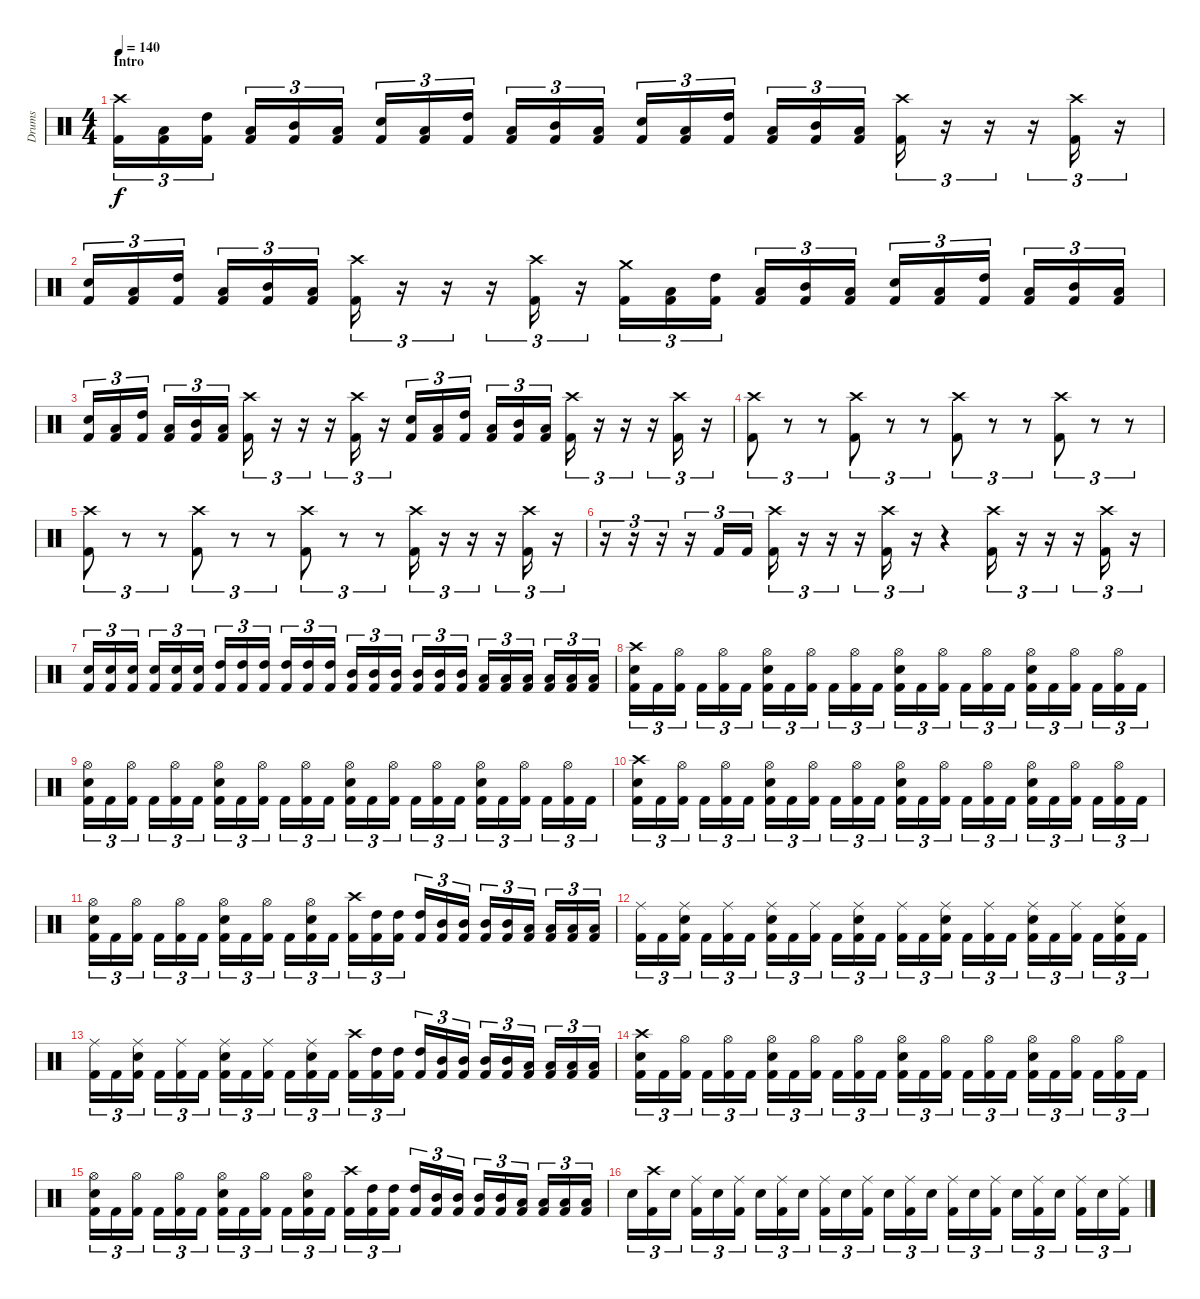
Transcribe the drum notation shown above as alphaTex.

\track ("Drums" "Drums") {instrument percussion}
\staff {score}
\articulation defaults
\ts (4 4)
\section ("" "Intro")
\tempo 140
\clef neutral
\ks c
("Kick (hit) 2" "Crash high (hit)").16{tu (3 2) dy f} ("Kick (hit) 2" "Low Tom (hit)").16{tu (3 2)} ("Kick (hit) 2" "High Tom (hit)").16{tu (3 2)} ("Kick (hit) 2" "Low Tom (hit)").16{tu (3 2)} ("Kick (hit) 2" "Mid Tom (hit)").16{tu (3 2)} ("Kick (hit) 2" "Low Tom (hit)").16{tu (3 2)} ("Kick (hit) 2" "Snare (hit) 2").16{tu (3 2)} ("Kick (hit) 2" "Low Tom (hit)").16{tu (3 2)} ("Kick (hit) 2" "High Tom (hit)").16{tu (3 2)} ("Kick (hit) 2" "Low Tom (hit)").16{tu (3 2)} ("Kick (hit) 2" "Mid Tom (hit)").16{tu (3 2)} ("Kick (hit) 2" "Low Tom (hit)").16{tu (3 2)} ("Kick (hit) 2" "Snare (hit) 2").16{tu (3 2)} ("Kick (hit) 2" "Low Tom (hit)").16{tu (3 2)} ("Kick (hit) 2" "High Tom (hit)").16{tu (3 2)} ("Kick (hit) 2" "Low Tom (hit)").16{tu (3 2)} ("Kick (hit) 2" "Mid Tom (hit)").16{tu (3 2)} ("Kick (hit) 2" "Low Tom (hit)").16{tu (3 2)} ("Kick (hit) 2" "Crash high (hit)").16{tu (3 2)} r.16{tu (3 2)} r.16{tu (3 2)} r.16{tu (3 2)} ("Kick (hit) 2" "Crash high (hit)").16{tu (3 2)} r.16{tu (3 2)} |
("Kick (hit) 2" "Snare (hit) 2").16{tu (3 2)} ("Kick (hit) 2" "Low Tom (hit)").16{tu (3 2)} ("Kick (hit) 2" "High Tom (hit)").16{tu (3 2)} ("Kick (hit) 2" "Low Tom (hit)").16{tu (3 2)} ("Kick (hit) 2" "Mid Tom (hit)").16{tu (3 2)} ("Kick (hit) 2" "Low Tom (hit)").16{tu (3 2)} ("Kick (hit) 2" "Crash high (hit)").16{tu (3 2)} r.16{tu (3 2)} r.16{tu (3 2)} r.16{tu (3 2)} ("Kick (hit) 2" "Crash high (hit)").16{tu (3 2)} r.16{tu (3 2)} ("Kick (hit) 2" "Crash medium (hit)").16{tu (3 2)} ("Kick (hit) 2" "Low Tom (hit)").16{tu (3 2)} ("Kick (hit) 2" "High Tom (hit)").16{tu (3 2)} ("Kick (hit) 2" "Low Tom (hit)").16{tu (3 2)} ("Kick (hit) 2" "Mid Tom (hit)").16{tu (3 2)} ("Kick (hit) 2" "Low Tom (hit)").16{tu (3 2)} ("Kick (hit) 2" "Snare (hit) 2").16{tu (3 2)} ("Kick (hit) 2" "Low Tom (hit)").16{tu (3 2)} ("Kick (hit) 2" "High Tom (hit)").16{tu (3 2)} ("Kick (hit) 2" "Low Tom (hit)").16{tu (3 2)} ("Kick (hit) 2" "Mid Tom (hit)").16{tu (3 2)} ("Kick (hit) 2" "Low Tom (hit)").16{tu (3 2)} |
("Kick (hit) 2" "Snare (hit) 2").16{tu (3 2)} ("Kick (hit) 2" "Low Tom (hit)").16{tu (3 2)} ("Kick (hit) 2" "High Tom (hit)").16{tu (3 2)} ("Kick (hit) 2" "Low Tom (hit)").16{tu (3 2)} ("Kick (hit) 2" "Mid Tom (hit)").16{tu (3 2)} ("Kick (hit) 2" "Low Tom (hit)").16{tu (3 2)} ("Kick (hit) 2" "Crash high (hit)").16{tu (3 2)} r.16{tu (3 2)} r.16{tu (3 2)} r.16{tu (3 2)} ("Kick (hit) 2" "Crash high (hit)").16{tu (3 2)} r.16{tu (3 2)} ("Kick (hit) 2" "Snare (hit) 2").16{tu (3 2)} ("Kick (hit) 2" "Low Tom (hit)").16{tu (3 2)} ("Kick (hit) 2" "High Tom (hit)").16{tu (3 2)} ("Kick (hit) 2" "Low Tom (hit)").16{tu (3 2)} ("Kick (hit) 2" "Mid Tom (hit)").16{tu (3 2)} ("Kick (hit) 2" "Low Tom (hit)").16{tu (3 2)} ("Kick (hit) 2" "Crash high (hit)").16{tu (3 2)} r.16{tu (3 2)} r.16{tu (3 2)} r.16{tu (3 2)} ("Kick (hit) 2" "Crash high (hit)").16{tu (3 2)} r.16{tu (3 2)} |
("Kick (hit) 2" "Crash high (hit)").8{tu (3 2)} r.8{tu (3 2)} r.8{tu (3 2)} ("Kick (hit) 2" "Crash high (hit)").8{tu (3 2)} r.8{tu (3 2)} r.8{tu (3 2)} ("Kick (hit) 2" "Crash high (hit)").8{tu (3 2)} r.8{tu (3 2)} r.8{tu (3 2)} ("Kick (hit) 2" "Crash high (hit)").8{tu (3 2)} r.8{tu (3 2)} r.8{tu (3 2)} |
("Kick (hit) 2" "Crash high (hit)").8{tu (3 2)} r.8{tu (3 2)} r.8{tu (3 2)} ("Kick (hit) 2" "Crash high (hit)").8{tu (3 2)} r.8{tu (3 2)} r.8{tu (3 2)} ("Kick (hit) 2" "Crash high (hit)").8{tu (3 2)} r.8{tu (3 2)} r.8{tu (3 2)} ("Kick (hit) 2" "Crash high (hit)").16{tu (3 2)} r.16{tu (3 2)} r.16{tu (3 2)} r.16{tu (3 2)} ("Kick (hit) 2" "Crash high (hit)").16{tu (3 2)} r.16{tu (3 2)} |
r.16{tu (3 2)} r.16{tu (3 2)} r.16{tu (3 2)} r.16{tu (3 2)} "Kick (hit) 2".16{tu (3 2)} "Kick (hit) 2".16{tu (3 2)} ("Kick (hit) 2" "Crash high (hit)").16{tu (3 2)} r.16{tu (3 2)} r.16{tu (3 2)} r.16{tu (3 2)} ("Kick (hit) 2" "Crash high (hit)").16{tu (3 2)} r.16{tu (3 2)} r.4 ("Kick (hit) 2" "Crash high (hit)").16{tu (3 2)} r.16{tu (3 2)} r.16{tu (3 2)} r.16{tu (3 2)} ("Kick (hit) 2" "Crash high (hit)").16{tu (3 2)} r.16{tu (3 2)} |
("Kick (hit) 2" "Snare (hit) 2").16{tu (3 2)} ("Kick (hit) 2" "Snare (hit) 2").16{tu (3 2)} ("Kick (hit) 2" "Snare (hit) 2").16{tu (3 2)} ("Kick (hit) 2" "Snare (hit) 2").16{tu (3 2)} ("Kick (hit) 2" "Snare (hit) 2").16{tu (3 2)} ("Kick (hit) 2" "Snare (hit) 2").16{tu (3 2)} ("Kick (hit) 2" "High Tom (hit)").16{tu (3 2)} ("Kick (hit) 2" "High Tom (hit)").16{tu (3 2)} ("Kick (hit) 2" "High Tom (hit)").16{tu (3 2)} ("Kick (hit) 2" "High Tom (hit)").16{tu (3 2)} ("Kick (hit) 2" "High Tom (hit)").16{tu (3 2)} ("Kick (hit) 2" "High Tom (hit)").16{tu (3 2)} ("Kick (hit) 2" "Mid Tom (hit)").16{tu (3 2)} ("Kick (hit) 2" "Mid Tom (hit)").16{tu (3 2)} ("Kick (hit) 2" "Mid Tom (hit)").16{tu (3 2)} ("Kick (hit) 2" "Mid Tom (hit)").16{tu (3 2)} ("Kick (hit) 2" "Mid Tom (hit)").16{tu (3 2)} ("Kick (hit) 2" "Mid Tom (hit)").16{tu (3 2)} ("Kick (hit) 2" "Low Tom (hit)").16{tu (3 2)} ("Kick (hit) 2" "Low Tom (hit)").16{tu (3 2)} ("Kick (hit) 2" "Low Tom (hit)").16{tu (3 2)} ("Kick (hit) 2" "Low Tom (hit)").16{tu (3 2)} ("Kick (hit) 2" "Low Tom (hit)").16{tu (3 2)} ("Kick (hit) 2" "Low Tom (hit)").16{tu (3 2)} |
("Kick (hit) 2" "Snare (hit) 2" "Crash high (hit)").16{tu (3 2)} "Kick (hit) 2".16{tu (3 2)} ("Kick (hit) 2" "Hi-Hat (open)").16{tu (3 2)} "Kick (hit) 2".16{tu (3 2)} ("Kick (hit) 2" "Hi-Hat (open)").16{tu (3 2)} "Kick (hit) 2".16{tu (3 2)} ("Kick (hit) 2" "Snare (hit) 2" "Hi-Hat (open)").16{tu (3 2)} "Kick (hit) 2".16{tu (3 2)} ("Kick (hit) 2" "Hi-Hat (open)").16{tu (3 2)} "Kick (hit) 2".16{tu (3 2)} ("Kick (hit) 2" "Hi-Hat (open)").16{tu (3 2)} "Kick (hit) 2".16{tu (3 2)} ("Kick (hit) 2" "Snare (hit) 2" "Hi-Hat (open)").16{tu (3 2)} "Kick (hit) 2".16{tu (3 2)} ("Kick (hit) 2" "Hi-Hat (open)").16{tu (3 2)} "Kick (hit) 2".16{tu (3 2)} ("Kick (hit) 2" "Hi-Hat (open)").16{tu (3 2)} "Kick (hit) 2".16{tu (3 2)} ("Kick (hit) 2" "Snare (hit) 2" "Hi-Hat (open)").16{tu (3 2)} "Kick (hit) 2".16{tu (3 2)} ("Kick (hit) 2" "Hi-Hat (open)").16{tu (3 2)} "Kick (hit) 2".16{tu (3 2)} ("Kick (hit) 2" "Hi-Hat (open)").16{tu (3 2)} "Kick (hit) 2".16{tu (3 2)} |
("Kick (hit) 2" "Snare (hit) 2" "Hi-Hat (open)").16{tu (3 2)} "Kick (hit) 2".16{tu (3 2)} ("Kick (hit) 2" "Hi-Hat (open)").16{tu (3 2)} "Kick (hit) 2".16{tu (3 2)} ("Kick (hit) 2" "Hi-Hat (open)").16{tu (3 2)} "Kick (hit) 2".16{tu (3 2)} ("Kick (hit) 2" "Snare (hit) 2" "Hi-Hat (open)").16{tu (3 2)} "Kick (hit) 2".16{tu (3 2)} ("Kick (hit) 2" "Hi-Hat (open)").16{tu (3 2)} "Kick (hit) 2".16{tu (3 2)} ("Kick (hit) 2" "Hi-Hat (open)").16{tu (3 2)} "Kick (hit) 2".16{tu (3 2)} ("Kick (hit) 2" "Snare (hit) 2" "Hi-Hat (open)").16{tu (3 2)} "Kick (hit) 2".16{tu (3 2)} ("Kick (hit) 2" "Hi-Hat (open)").16{tu (3 2)} "Kick (hit) 2".16{tu (3 2)} ("Kick (hit) 2" "Hi-Hat (open)").16{tu (3 2)} "Kick (hit) 2".16{tu (3 2)} ("Kick (hit) 2" "Snare (hit) 2" "Hi-Hat (open)").16{tu (3 2)} "Kick (hit) 2".16{tu (3 2)} ("Kick (hit) 2" "Hi-Hat (open)").16{tu (3 2)} "Kick (hit) 2".16{tu (3 2)} ("Kick (hit) 2" "Hi-Hat (open)").16{tu (3 2)} "Kick (hit) 2".16{tu (3 2)} |
("Kick (hit) 2" "Snare (hit) 2" "Crash high (hit)").16{tu (3 2)} "Kick (hit) 2".16{tu (3 2)} ("Kick (hit) 2" "Hi-Hat (open)").16{tu (3 2)} "Kick (hit) 2".16{tu (3 2)} ("Kick (hit) 2" "Hi-Hat (open)").16{tu (3 2)} "Kick (hit) 2".16{tu (3 2)} ("Kick (hit) 2" "Snare (hit) 2" "Hi-Hat (open)").16{tu (3 2)} "Kick (hit) 2".16{tu (3 2)} ("Kick (hit) 2" "Hi-Hat (open)").16{tu (3 2)} "Kick (hit) 2".16{tu (3 2)} ("Kick (hit) 2" "Hi-Hat (open)").16{tu (3 2)} "Kick (hit) 2".16{tu (3 2)} ("Kick (hit) 2" "Snare (hit) 2" "Hi-Hat (open)").16{tu (3 2)} "Kick (hit) 2".16{tu (3 2)} ("Kick (hit) 2" "Hi-Hat (open)").16{tu (3 2)} "Kick (hit) 2".16{tu (3 2)} ("Kick (hit) 2" "Hi-Hat (open)").16{tu (3 2)} "Kick (hit) 2".16{tu (3 2)} ("Kick (hit) 2" "Snare (hit) 2" "Hi-Hat (open)").16{tu (3 2)} "Kick (hit) 2".16{tu (3 2)} ("Kick (hit) 2" "Hi-Hat (open)").16{tu (3 2)} "Kick (hit) 2".16{tu (3 2)} ("Kick (hit) 2" "Hi-Hat (open)").16{tu (3 2)} "Kick (hit) 2".16{tu (3 2)} |
("Kick (hit) 2" "Snare (hit) 2" "Hi-Hat (open)").16{tu (3 2)} "Kick (hit) 2".16{tu (3 2)} ("Kick (hit) 2" "Hi-Hat (open)").16{tu (3 2)} "Kick (hit) 2".16{tu (3 2)} ("Kick (hit) 2" "Hi-Hat (open)").16{tu (3 2)} "Kick (hit) 2".16{tu (3 2)} ("Kick (hit) 2" "Snare (hit) 2" "Hi-Hat (open)").16{tu (3 2)} "Kick (hit) 2".16{tu (3 2)} ("Kick (hit) 2" "Hi-Hat (open)").16{tu (3 2)} "Kick (hit) 2".16{tu (3 2)} ("Kick (hit) 2" "Snare (hit) 2" "Hi-Hat (open)").16{tu (3 2)} "Kick (hit) 2".16{tu (3 2)} ("Kick (hit) 2" "Crash high (hit)").16{tu (3 2)} ("Kick (hit) 2" "High Tom (hit)").16{tu (3 2)} ("Kick (hit) 2" "High Tom (hit)").16{tu (3 2)} ("Kick (hit) 2" "High Tom (hit)").16{tu (3 2)} ("Kick (hit) 2" "Mid Tom (hit)").16{tu (3 2)} ("Kick (hit) 2" "Mid Tom (hit)").16{tu (3 2)} ("Kick (hit) 2" "Mid Tom (hit)").16{tu (3 2)} ("Kick (hit) 2" "Mid Tom (hit)").16{tu (3 2)} ("Kick (hit) 2" "Low Tom (hit)").16{tu (3 2)} ("Kick (hit) 2" "Low Tom (hit)").16{tu (3 2)} ("Kick (hit) 2" "Low Tom (hit)").16{tu (3 2)} ("Kick (hit) 2" "Low Tom (hit)").16{tu (3 2)} |
("Kick (hit) 2" "Ride (middle)").16{tu (3 2)} "Kick (hit) 2".16{tu (3 2)} ("Kick (hit) 2" "Snare (hit) 2" "Ride (middle)").16{tu (3 2)} "Kick (hit) 2".16{tu (3 2)} ("Kick (hit) 2" "Ride (middle)").16{tu (3 2)} "Kick (hit) 2".16{tu (3 2)} ("Kick (hit) 2" "Snare (hit) 2" "Ride (middle)").16{tu (3 2)} "Kick (hit) 2".16{tu (3 2)} ("Kick (hit) 2" "Ride (middle)").16{tu (3 2)} "Kick (hit) 2".16{tu (3 2)} ("Kick (hit) 2" "Snare (hit) 2" "Ride (middle)").16{tu (3 2)} "Kick (hit) 2".16{tu (3 2)} ("Kick (hit) 2" "Ride (middle)").16{tu (3 2)} "Kick (hit) 2".16{tu (3 2)} ("Kick (hit) 2" "Snare (hit) 2" "Ride (middle)").16{tu (3 2)} "Kick (hit) 2".16{tu (3 2)} ("Kick (hit) 2" "Ride (middle)").16{tu (3 2)} "Kick (hit) 2".16{tu (3 2)} ("Kick (hit) 2" "Snare (hit) 2" "Ride (middle)").16{tu (3 2)} "Kick (hit) 2".16{tu (3 2)} ("Kick (hit) 2" "Ride (middle)").16{tu (3 2)} "Kick (hit) 2".16{tu (3 2)} ("Kick (hit) 2" "Snare (hit) 2" "Ride (middle)").16{tu (3 2)} "Kick (hit) 2".16{tu (3 2)} |
("Kick (hit) 2" "Ride (middle)").16{tu (3 2)} "Kick (hit) 2".16{tu (3 2)} ("Kick (hit) 2" "Snare (hit) 2" "Ride (middle)").16{tu (3 2)} "Kick (hit) 2".16{tu (3 2)} ("Kick (hit) 2" "Ride (middle)").16{tu (3 2)} "Kick (hit) 2".16{tu (3 2)} ("Kick (hit) 2" "Snare (hit) 2" "Ride (middle)").16{tu (3 2)} "Kick (hit) 2".16{tu (3 2)} ("Kick (hit) 2" "Ride (middle)").16{tu (3 2)} "Kick (hit) 2".16{tu (3 2)} ("Kick (hit) 2" "Snare (hit) 2" "Ride (middle)").16{tu (3 2)} "Kick (hit) 2".16{tu (3 2)} ("Kick (hit) 2" "Crash high (hit)").16{tu (3 2)} ("Kick (hit) 2" "High Tom (hit)").16{tu (3 2)} ("Kick (hit) 2" "High Tom (hit)").16{tu (3 2)} ("Kick (hit) 2" "High Tom (hit)").16{tu (3 2)} ("Kick (hit) 2" "Mid Tom (hit)").16{tu (3 2)} ("Kick (hit) 2" "Mid Tom (hit)").16{tu (3 2)} ("Kick (hit) 2" "Mid Tom (hit)").16{tu (3 2)} ("Kick (hit) 2" "Mid Tom (hit)").16{tu (3 2)} ("Kick (hit) 2" "Low Tom (hit)").16{tu (3 2)} ("Kick (hit) 2" "Low Tom (hit)").16{tu (3 2)} ("Kick (hit) 2" "Low Tom (hit)").16{tu (3 2)} ("Kick (hit) 2" "Low Tom (hit)").16{tu (3 2)} |
("Kick (hit) 2" "Snare (hit) 2" "Crash high (hit)").16{tu (3 2)} "Kick (hit) 2".16{tu (3 2)} ("Kick (hit) 2" "Hi-Hat (open)").16{tu (3 2)} "Kick (hit) 2".16{tu (3 2)} ("Kick (hit) 2" "Hi-Hat (open)").16{tu (3 2)} "Kick (hit) 2".16{tu (3 2)} ("Kick (hit) 2" "Snare (hit) 2" "Hi-Hat (open)").16{tu (3 2)} "Kick (hit) 2".16{tu (3 2)} ("Kick (hit) 2" "Hi-Hat (open)").16{tu (3 2)} "Kick (hit) 2".16{tu (3 2)} ("Kick (hit) 2" "Hi-Hat (open)").16{tu (3 2)} "Kick (hit) 2".16{tu (3 2)} ("Kick (hit) 2" "Snare (hit) 2" "Hi-Hat (open)").16{tu (3 2)} "Kick (hit) 2".16{tu (3 2)} ("Kick (hit) 2" "Hi-Hat (open)").16{tu (3 2)} "Kick (hit) 2".16{tu (3 2)} ("Kick (hit) 2" "Hi-Hat (open)").16{tu (3 2)} "Kick (hit) 2".16{tu (3 2)} ("Kick (hit) 2" "Snare (hit) 2" "Hi-Hat (open)").16{tu (3 2)} "Kick (hit) 2".16{tu (3 2)} ("Kick (hit) 2" "Hi-Hat (open)").16{tu (3 2)} "Kick (hit) 2".16{tu (3 2)} ("Kick (hit) 2" "Hi-Hat (open)").16{tu (3 2)} "Kick (hit) 2".16{tu (3 2)} |
("Kick (hit) 2" "Snare (hit) 2" "Hi-Hat (open)").16{tu (3 2)} "Kick (hit) 2".16{tu (3 2)} ("Kick (hit) 2" "Hi-Hat (open)").16{tu (3 2)} "Kick (hit) 2".16{tu (3 2)} ("Kick (hit) 2" "Hi-Hat (open)").16{tu (3 2)} "Kick (hit) 2".16{tu (3 2)} ("Kick (hit) 2" "Snare (hit) 2" "Hi-Hat (open)").16{tu (3 2)} "Kick (hit) 2".16{tu (3 2)} ("Kick (hit) 2" "Hi-Hat (open)").16{tu (3 2)} "Kick (hit) 2".16{tu (3 2)} ("Kick (hit) 2" "Snare (hit) 2" "Hi-Hat (open)").16{tu (3 2)} "Kick (hit) 2".16{tu (3 2)} ("Kick (hit) 2" "Crash high (hit)").16{tu (3 2)} ("Kick (hit) 2" "High Tom (hit)").16{tu (3 2)} ("Kick (hit) 2" "High Tom (hit)").16{tu (3 2)} ("Kick (hit) 2" "High Tom (hit)").16{tu (3 2)} ("Kick (hit) 2" "Mid Tom (hit)").16{tu (3 2)} ("Kick (hit) 2" "Mid Tom (hit)").16{tu (3 2)} ("Kick (hit) 2" "Mid Tom (hit)").16{tu (3 2)} ("Kick (hit) 2" "Mid Tom (hit)").16{tu (3 2)} ("Kick (hit) 2" "Low Tom (hit)").16{tu (3 2)} ("Kick (hit) 2" "Low Tom (hit)").16{tu (3 2)} ("Kick (hit) 2" "Low Tom (hit)").16{tu (3 2)} ("Kick (hit) 2" "Low Tom (hit)").16{tu (3 2)} |
"Snare (hit) 2".16{tu (3 2)} ("Kick (hit) 2" "Crash high (hit)").16{tu (3 2)} "Snare (hit) 2".16{tu (3 2)} ("Kick (hit) 2" "Ride (middle)").16{tu (3 2)} "Snare (hit) 2".16{tu (3 2)} ("Kick (hit) 2" "Ride (middle)").16{tu (3 2)} "Snare (hit) 2".16{tu (3 2)} ("Kick (hit) 2" "Ride (middle)").16{tu (3 2)} "Snare (hit) 2".16{tu (3 2)} ("Kick (hit) 2" "Ride (middle)").16{tu (3 2)} "Snare (hit) 2".16{tu (3 2)} ("Kick (hit) 2" "Ride (middle)").16{tu (3 2)} "Snare (hit) 2".16{tu (3 2)} ("Kick (hit) 2" "Ride (middle)").16{tu (3 2)} "Snare (hit) 2".16{tu (3 2)} ("Kick (hit) 2" "Ride (middle)").16{tu (3 2)} "Snare (hit) 2".16{tu (3 2)} ("Kick (hit) 2" "Ride (middle)").16{tu (3 2)} "Snare (hit) 2".16{tu (3 2)} ("Kick (hit) 2" "Ride (middle)").16{tu (3 2)} "Snare (hit) 2".16{tu (3 2)} ("Kick (hit) 2" "Ride (middle)").16{tu (3 2)} "Snare (hit) 2".16{tu (3 2)} ("Kick (hit) 2" "Ride (middle)").16{tu (3 2)}
